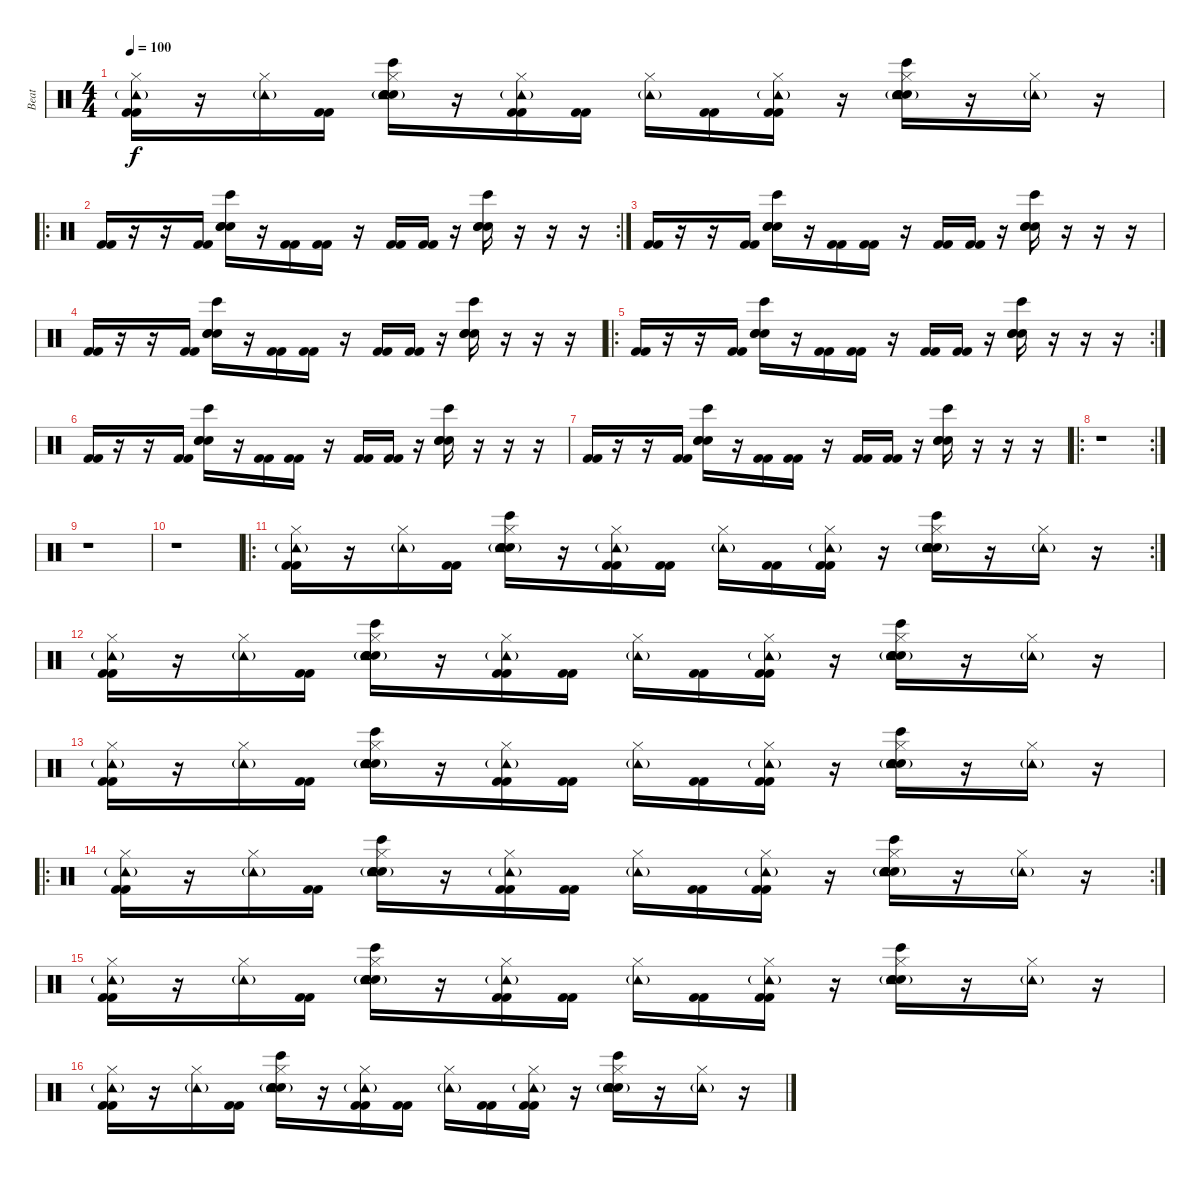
\track ("Beat" "Beat") {instrument percussion}
\staff {score}
\articulation defaults
\ts (4 4)
\tempo 100
\clef neutral
\ks c
("Hi-Hat (closed)" "Tambourine (hit)"{g} "Kick (hit) 2" "Kick (hit) 2").16{dy f} r.16 ("Hi-Hat (closed)" "Tambourine (hit)"{g}).16 ("Kick (hit) 2" "Kick (hit) 2").16 ("Electric Snare (hit)" "Hi-Hat (closed)" "Tambourine (hit)"{g} "Hand Clap (hit)" "Bongo High (hit)" "Hand Clap (hit)").16 r.16 ("Hi-Hat (closed)" "Tambourine (hit)"{g} "Kick (hit) 2" "Kick (hit) 2").16 ("Kick (hit) 2" "Kick (hit) 2").16 ("Hi-Hat (closed)" "Tambourine (hit)"{g}).16 ("Kick (hit) 2" "Kick (hit) 2").16 ("Hi-Hat (closed)" "Tambourine (hit)"{g} "Kick (hit) 2" "Kick (hit) 2").16 r.16 ("Electric Snare (hit)" "Hi-Hat (closed)" "Tambourine (hit)"{g} "Hand Clap (hit)" "Bongo High (hit)" "Hand Clap (hit)").16 r.16 ("Hi-Hat (closed)" "Tambourine (hit)"{g}).16 r.16 |
\ro
\rc 2
("Kick (hit) 2" "Kick (hit) 2").16 r.16 r.16 ("Kick (hit) 2" "Kick (hit) 2").16 ("Electric Snare (hit)" "Hand Clap (hit)" "Bongo High (hit)" "Hand Clap (hit)").16 r.16 ("Kick (hit) 2" "Kick (hit) 2").16 ("Kick (hit) 2" "Kick (hit) 2").16 r.16 ("Kick (hit) 2" "Kick (hit) 2").16 ("Kick (hit) 2" "Kick (hit) 2").16 r.16 ("Electric Snare (hit)" "Hand Clap (hit)" "Bongo High (hit)" "Hand Clap (hit)").16 r.16 r.16 r.16 |
("Kick (hit) 2" "Kick (hit) 2").16 r.16 r.16 ("Kick (hit) 2" "Kick (hit) 2").16 ("Electric Snare (hit)" "Hand Clap (hit)" "Bongo High (hit)" "Hand Clap (hit)").16 r.16 ("Kick (hit) 2" "Kick (hit) 2").16 ("Kick (hit) 2" "Kick (hit) 2").16 r.16 ("Kick (hit) 2" "Kick (hit) 2").16 ("Kick (hit) 2" "Kick (hit) 2").16 r.16 ("Electric Snare (hit)" "Hand Clap (hit)" "Bongo High (hit)" "Hand Clap (hit)").16 r.16 r.16 r.16 |
("Kick (hit) 2" "Kick (hit) 2").16 r.16 r.16 ("Kick (hit) 2" "Kick (hit) 2").16 ("Electric Snare (hit)" "Hand Clap (hit)" "Bongo High (hit)" "Hand Clap (hit)").16 r.16 ("Kick (hit) 2" "Kick (hit) 2").16 ("Kick (hit) 2" "Kick (hit) 2").16 r.16 ("Kick (hit) 2" "Kick (hit) 2").16 ("Kick (hit) 2" "Kick (hit) 2").16 r.16 ("Electric Snare (hit)" "Hand Clap (hit)" "Bongo High (hit)" "Hand Clap (hit)").16 r.16 r.16 r.16 |
\ro
\rc 2
("Kick (hit) 2" "Kick (hit) 2").16 r.16 r.16 ("Kick (hit) 2" "Kick (hit) 2").16 ("Electric Snare (hit)" "Hand Clap (hit)" "Bongo High (hit)" "Hand Clap (hit)").16 r.16 ("Kick (hit) 2" "Kick (hit) 2").16 ("Kick (hit) 2" "Kick (hit) 2").16 r.16 ("Kick (hit) 2" "Kick (hit) 2").16 ("Kick (hit) 2" "Kick (hit) 2").16 r.16 ("Electric Snare (hit)" "Hand Clap (hit)" "Bongo High (hit)" "Hand Clap (hit)").16 r.16 r.16 r.16 |
("Kick (hit) 2" "Kick (hit) 2").16 r.16 r.16 ("Kick (hit) 2" "Kick (hit) 2").16 ("Electric Snare (hit)" "Hand Clap (hit)" "Bongo High (hit)" "Hand Clap (hit)").16 r.16 ("Kick (hit) 2" "Kick (hit) 2").16 ("Kick (hit) 2" "Kick (hit) 2").16 r.16 ("Kick (hit) 2" "Kick (hit) 2").16 ("Kick (hit) 2" "Kick (hit) 2").16 r.16 ("Electric Snare (hit)" "Hand Clap (hit)" "Bongo High (hit)" "Hand Clap (hit)").16 r.16 r.16 r.16 |
("Kick (hit) 2" "Kick (hit) 2").16 r.16 r.16 ("Kick (hit) 2" "Kick (hit) 2").16 ("Electric Snare (hit)" "Hand Clap (hit)" "Bongo High (hit)" "Hand Clap (hit)").16 r.16 ("Kick (hit) 2" "Kick (hit) 2").16 ("Kick (hit) 2" "Kick (hit) 2").16 r.16 ("Kick (hit) 2" "Kick (hit) 2").16 ("Kick (hit) 2" "Kick (hit) 2").16 r.16 ("Electric Snare (hit)" "Hand Clap (hit)" "Bongo High (hit)" "Hand Clap (hit)").16 r.16 r.16 r.16 |
\ro
\rc 2
r.1 |
r.1 |
r.1 |
\ro
\rc 2
("Hi-Hat (closed)" "Tambourine (hit)"{g} "Kick (hit) 2" "Kick (hit) 2").16 r.16 ("Hi-Hat (closed)" "Tambourine (hit)"{g}).16 ("Kick (hit) 2" "Kick (hit) 2").16 ("Electric Snare (hit)" "Hi-Hat (closed)" "Tambourine (hit)"{g} "Hand Clap (hit)" "Bongo High (hit)" "Hand Clap (hit)").16 r.16 ("Hi-Hat (closed)" "Tambourine (hit)"{g} "Kick (hit) 2" "Kick (hit) 2").16 ("Kick (hit) 2" "Kick (hit) 2").16 ("Hi-Hat (closed)" "Tambourine (hit)"{g}).16 ("Kick (hit) 2" "Kick (hit) 2").16 ("Hi-Hat (closed)" "Tambourine (hit)"{g} "Kick (hit) 2" "Kick (hit) 2").16 r.16 ("Electric Snare (hit)" "Hi-Hat (closed)" "Tambourine (hit)"{g} "Hand Clap (hit)" "Bongo High (hit)" "Hand Clap (hit)").16 r.16 ("Hi-Hat (closed)" "Tambourine (hit)"{g}).16 r.16 |
("Hi-Hat (closed)" "Tambourine (hit)"{g} "Kick (hit) 2" "Kick (hit) 2").16 r.16 ("Hi-Hat (closed)" "Tambourine (hit)"{g}).16 ("Kick (hit) 2" "Kick (hit) 2").16 ("Electric Snare (hit)" "Hi-Hat (closed)" "Tambourine (hit)"{g} "Hand Clap (hit)" "Bongo High (hit)" "Hand Clap (hit)").16 r.16 ("Hi-Hat (closed)" "Tambourine (hit)"{g} "Kick (hit) 2" "Kick (hit) 2").16 ("Kick (hit) 2" "Kick (hit) 2").16 ("Hi-Hat (closed)" "Tambourine (hit)"{g}).16 ("Kick (hit) 2" "Kick (hit) 2").16 ("Hi-Hat (closed)" "Tambourine (hit)"{g} "Kick (hit) 2" "Kick (hit) 2").16 r.16 ("Electric Snare (hit)" "Hi-Hat (closed)" "Tambourine (hit)"{g} "Hand Clap (hit)" "Bongo High (hit)" "Hand Clap (hit)").16 r.16 ("Hi-Hat (closed)" "Tambourine (hit)"{g}).16 r.16 |
("Hi-Hat (closed)" "Tambourine (hit)"{g} "Kick (hit) 2" "Kick (hit) 2").16 r.16 ("Hi-Hat (closed)" "Tambourine (hit)"{g}).16 ("Kick (hit) 2" "Kick (hit) 2").16 ("Electric Snare (hit)" "Hi-Hat (closed)" "Tambourine (hit)"{g} "Hand Clap (hit)" "Bongo High (hit)" "Hand Clap (hit)").16 r.16 ("Hi-Hat (closed)" "Tambourine (hit)"{g} "Kick (hit) 2" "Kick (hit) 2").16 ("Kick (hit) 2" "Kick (hit) 2").16 ("Hi-Hat (closed)" "Tambourine (hit)"{g}).16 ("Kick (hit) 2" "Kick (hit) 2").16 ("Hi-Hat (closed)" "Tambourine (hit)"{g} "Kick (hit) 2" "Kick (hit) 2").16 r.16 ("Electric Snare (hit)" "Hi-Hat (closed)" "Tambourine (hit)"{g} "Hand Clap (hit)" "Bongo High (hit)" "Hand Clap (hit)").16 r.16 ("Hi-Hat (closed)" "Tambourine (hit)"{g}).16 r.16 |
\ro
\rc 2
("Hi-Hat (closed)" "Tambourine (hit)"{g} "Kick (hit) 2" "Kick (hit) 2").16 r.16 ("Hi-Hat (closed)" "Tambourine (hit)"{g}).16 ("Kick (hit) 2" "Kick (hit) 2").16 ("Electric Snare (hit)" "Hi-Hat (closed)" "Tambourine (hit)"{g} "Hand Clap (hit)" "Bongo High (hit)" "Hand Clap (hit)").16 r.16 ("Hi-Hat (closed)" "Tambourine (hit)"{g} "Kick (hit) 2" "Kick (hit) 2").16 ("Kick (hit) 2" "Kick (hit) 2").16 ("Hi-Hat (closed)" "Tambourine (hit)"{g}).16 ("Kick (hit) 2" "Kick (hit) 2").16 ("Hi-Hat (closed)" "Tambourine (hit)"{g} "Kick (hit) 2" "Kick (hit) 2").16 r.16 ("Electric Snare (hit)" "Hi-Hat (closed)" "Tambourine (hit)"{g} "Hand Clap (hit)" "Bongo High (hit)" "Hand Clap (hit)").16 r.16 ("Hi-Hat (closed)" "Tambourine (hit)"{g}).16 r.16 |
("Hi-Hat (closed)" "Tambourine (hit)"{g} "Kick (hit) 2" "Kick (hit) 2").16 r.16 ("Hi-Hat (closed)" "Tambourine (hit)"{g}).16 ("Kick (hit) 2" "Kick (hit) 2").16 ("Electric Snare (hit)" "Hi-Hat (closed)" "Tambourine (hit)"{g} "Hand Clap (hit)" "Bongo High (hit)" "Hand Clap (hit)").16 r.16 ("Hi-Hat (closed)" "Tambourine (hit)"{g} "Kick (hit) 2" "Kick (hit) 2").16 ("Kick (hit) 2" "Kick (hit) 2").16 ("Hi-Hat (closed)" "Tambourine (hit)"{g}).16 ("Kick (hit) 2" "Kick (hit) 2").16 ("Hi-Hat (closed)" "Tambourine (hit)"{g} "Kick (hit) 2" "Kick (hit) 2").16 r.16 ("Electric Snare (hit)" "Hi-Hat (closed)" "Tambourine (hit)"{g} "Hand Clap (hit)" "Bongo High (hit)" "Hand Clap (hit)").16 r.16 ("Hi-Hat (closed)" "Tambourine (hit)"{g}).16 r.16 |
("Hi-Hat (closed)" "Tambourine (hit)"{g} "Kick (hit) 2" "Kick (hit) 2").16 r.16 ("Hi-Hat (closed)" "Tambourine (hit)"{g}).16 ("Kick (hit) 2" "Kick (hit) 2").16 ("Electric Snare (hit)" "Hi-Hat (closed)" "Tambourine (hit)"{g} "Hand Clap (hit)" "Bongo High (hit)" "Hand Clap (hit)").16 r.16 ("Hi-Hat (closed)" "Tambourine (hit)"{g} "Kick (hit) 2" "Kick (hit) 2").16 ("Kick (hit) 2" "Kick (hit) 2").16 ("Hi-Hat (closed)" "Tambourine (hit)"{g}).16 ("Kick (hit) 2" "Kick (hit) 2").16 ("Hi-Hat (closed)" "Tambourine (hit)"{g} "Kick (hit) 2" "Kick (hit) 2").16 r.16 ("Electric Snare (hit)" "Hi-Hat (closed)" "Tambourine (hit)"{g} "Hand Clap (hit)" "Bongo High (hit)" "Hand Clap (hit)").16 r.16 ("Hi-Hat (closed)" "Tambourine (hit)"{g}).16 r.16
